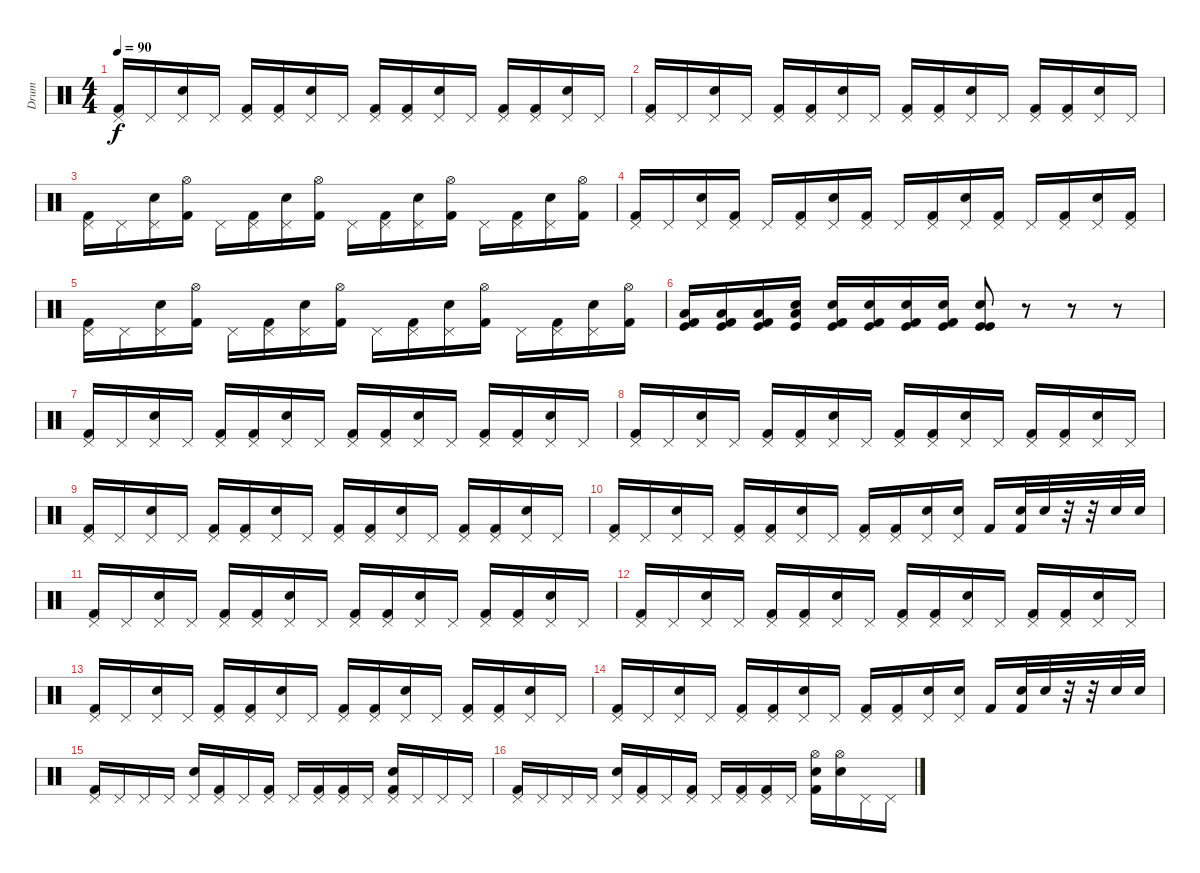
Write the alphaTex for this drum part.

\track ("Drum" "Drum") {instrument percussion}
\staff {score}
\articulation defaults
\ts (4 4)
\tempo 90
\clef neutral
\ks c
("Pedal Hi-Hat (hit)" "Kick (hit) 2").16{dy f} "Pedal Hi-Hat (hit)".16 ("Pedal Hi-Hat (hit)" "Snare (hit) 2").16 "Pedal Hi-Hat (hit)".16 ("Pedal Hi-Hat (hit)" "Kick (hit) 2").16 ("Pedal Hi-Hat (hit)" "Kick (hit) 2").16 ("Pedal Hi-Hat (hit)" "Snare (hit) 2").16 "Pedal Hi-Hat (hit)".16 ("Pedal Hi-Hat (hit)" "Kick (hit) 2").16 ("Pedal Hi-Hat (hit)" "Kick (hit) 2").16 ("Pedal Hi-Hat (hit)" "Snare (hit) 2").16 "Pedal Hi-Hat (hit)".16 ("Pedal Hi-Hat (hit)" "Kick (hit) 2").16 ("Pedal Hi-Hat (hit)" "Kick (hit) 2").16 ("Pedal Hi-Hat (hit)" "Snare (hit) 2").16 "Pedal Hi-Hat (hit)".16 |
("Pedal Hi-Hat (hit)" "Kick (hit) 2").16 "Pedal Hi-Hat (hit)".16 ("Pedal Hi-Hat (hit)" "Snare (hit) 2").16 "Pedal Hi-Hat (hit)".16 ("Pedal Hi-Hat (hit)" "Kick (hit) 2").16 ("Pedal Hi-Hat (hit)" "Kick (hit) 2").16 ("Pedal Hi-Hat (hit)" "Snare (hit) 2").16 "Pedal Hi-Hat (hit)".16 ("Pedal Hi-Hat (hit)" "Kick (hit) 2").16 ("Pedal Hi-Hat (hit)" "Kick (hit) 2").16 ("Pedal Hi-Hat (hit)" "Snare (hit) 2").16 "Pedal Hi-Hat (hit)".16 ("Pedal Hi-Hat (hit)" "Kick (hit) 2").16 ("Pedal Hi-Hat (hit)" "Kick (hit) 2").16 ("Pedal Hi-Hat (hit)" "Snare (hit) 2").16 "Pedal Hi-Hat (hit)".16 |
("Pedal Hi-Hat (hit)" "Kick (hit) 2").16 "Pedal Hi-Hat (hit)".16 ("Pedal Hi-Hat (hit)" "Snare (hit) 2").16 ("Hi-Hat (open)" "Kick (hit) 2").16 "Pedal Hi-Hat (hit)".16 ("Pedal Hi-Hat (hit)" "Kick (hit) 2").16 ("Pedal Hi-Hat (hit)" "Snare (hit) 2").16 ("Hi-Hat (open)" "Kick (hit) 2").16 "Pedal Hi-Hat (hit)".16 ("Pedal Hi-Hat (hit)" "Kick (hit) 2").16 ("Pedal Hi-Hat (hit)" "Snare (hit) 2").16 ("Hi-Hat (open)" "Kick (hit) 2").16 "Pedal Hi-Hat (hit)".16 ("Pedal Hi-Hat (hit)" "Kick (hit) 2").16 ("Pedal Hi-Hat (hit)" "Snare (hit) 2").16 ("Hi-Hat (open)" "Kick (hit) 2").16 |
("Pedal Hi-Hat (hit)" "Kick (hit) 2").16 "Pedal Hi-Hat (hit)".16 ("Pedal Hi-Hat (hit)" "Snare (hit) 2").16 ("Pedal Hi-Hat (hit)" "Kick (hit) 2").16 "Pedal Hi-Hat (hit)".16 ("Pedal Hi-Hat (hit)" "Kick (hit) 2").16 ("Pedal Hi-Hat (hit)" "Snare (hit) 2").16 ("Pedal Hi-Hat (hit)" "Kick (hit) 2").16 "Pedal Hi-Hat (hit)".16 ("Pedal Hi-Hat (hit)" "Kick (hit) 2").16 ("Pedal Hi-Hat (hit)" "Snare (hit) 2").16 ("Pedal Hi-Hat (hit)" "Kick (hit) 2").16 "Pedal Hi-Hat (hit)".16 ("Pedal Hi-Hat (hit)" "Kick (hit) 2").16 ("Pedal Hi-Hat (hit)" "Snare (hit) 2").16 ("Pedal Hi-Hat (hit)" "Kick (hit) 2").16 |
("Pedal Hi-Hat (hit)" "Kick (hit) 2").16 "Pedal Hi-Hat (hit)".16 ("Pedal Hi-Hat (hit)" "Snare (hit) 2").16 ("Hi-Hat (open)" "Kick (hit) 2").16 "Pedal Hi-Hat (hit)".16 ("Pedal Hi-Hat (hit)" "Kick (hit) 2").16 ("Pedal Hi-Hat (hit)" "Snare (hit) 2").16 ("Hi-Hat (open)" "Kick (hit) 2").16 "Pedal Hi-Hat (hit)".16 ("Pedal Hi-Hat (hit)" "Kick (hit) 2").16 ("Pedal Hi-Hat (hit)" "Snare (hit) 2").16 ("Hi-Hat (open)" "Kick (hit) 2").16 "Pedal Hi-Hat (hit)".16 ("Pedal Hi-Hat (hit)" "Kick (hit) 2").16 ("Pedal Hi-Hat (hit)" "Snare (hit) 2").16 ("Hi-Hat (open)" "Kick (hit) 2").16 |
("Kick (hit)" "Low Tom (hit)" "Kick (hit) 2").16 ("Kick (hit)" "Low Tom (hit)" "Kick (hit) 2").16 ("Kick (hit)" "Low Tom (hit)" "Kick (hit) 2").16 ("Kick (hit)" "Low Tom (hit)" "Snare (hit)").16 ("Kick (hit)" "Snare (hit) 2" "Kick (hit) 2").16 ("Kick (hit)" "Snare (hit) 2" "Kick (hit) 2").16 ("Kick (hit)" "Snare (hit) 2" "Kick (hit) 2").16 ("Kick (hit)" "Snare (hit) 2" "Kick (hit) 2").16 ("Kick (hit)" "Snare (hit) 2" "Kick (hit)").8 r.8 r.8 r.8 |
("Pedal Hi-Hat (hit)" "Kick (hit) 2").16 "Pedal Hi-Hat (hit)".16 ("Pedal Hi-Hat (hit)" "Snare (hit) 2").16 "Pedal Hi-Hat (hit)".16 ("Pedal Hi-Hat (hit)" "Kick (hit) 2").16 ("Pedal Hi-Hat (hit)" "Kick (hit) 2").16 ("Pedal Hi-Hat (hit)" "Snare (hit) 2").16 "Pedal Hi-Hat (hit)".16 ("Pedal Hi-Hat (hit)" "Kick (hit) 2").16 ("Pedal Hi-Hat (hit)" "Kick (hit) 2").16 ("Pedal Hi-Hat (hit)" "Snare (hit) 2").16 "Pedal Hi-Hat (hit)".16 ("Pedal Hi-Hat (hit)" "Kick (hit) 2").16 ("Pedal Hi-Hat (hit)" "Kick (hit) 2").16 ("Pedal Hi-Hat (hit)" "Snare (hit) 2").16 "Pedal Hi-Hat (hit)".16 |
("Pedal Hi-Hat (hit)" "Kick (hit) 2").16 "Pedal Hi-Hat (hit)".16 ("Pedal Hi-Hat (hit)" "Snare (hit) 2").16 "Pedal Hi-Hat (hit)".16 ("Pedal Hi-Hat (hit)" "Kick (hit) 2").16 ("Pedal Hi-Hat (hit)" "Kick (hit) 2").16 ("Pedal Hi-Hat (hit)" "Snare (hit) 2").16 "Pedal Hi-Hat (hit)".16 ("Pedal Hi-Hat (hit)" "Kick (hit) 2").16 ("Pedal Hi-Hat (hit)" "Kick (hit) 2").16 ("Pedal Hi-Hat (hit)" "Snare (hit) 2").16 "Pedal Hi-Hat (hit)".16 ("Pedal Hi-Hat (hit)" "Kick (hit) 2").16 ("Pedal Hi-Hat (hit)" "Kick (hit) 2").16 ("Pedal Hi-Hat (hit)" "Snare (hit) 2").16 "Pedal Hi-Hat (hit)".16 |
("Pedal Hi-Hat (hit)" "Kick (hit) 2").16 "Pedal Hi-Hat (hit)".16 ("Pedal Hi-Hat (hit)" "Snare (hit) 2").16 "Pedal Hi-Hat (hit)".16 ("Pedal Hi-Hat (hit)" "Kick (hit) 2").16 ("Pedal Hi-Hat (hit)" "Kick (hit) 2").16 ("Pedal Hi-Hat (hit)" "Snare (hit) 2").16 "Pedal Hi-Hat (hit)".16 ("Pedal Hi-Hat (hit)" "Kick (hit) 2").16 ("Pedal Hi-Hat (hit)" "Kick (hit) 2").16 ("Pedal Hi-Hat (hit)" "Snare (hit) 2").16 "Pedal Hi-Hat (hit)".16 ("Pedal Hi-Hat (hit)" "Kick (hit) 2").16 ("Pedal Hi-Hat (hit)" "Kick (hit) 2").16 ("Pedal Hi-Hat (hit)" "Snare (hit) 2").16 "Pedal Hi-Hat (hit)".16 |
("Pedal Hi-Hat (hit)" "Kick (hit) 2").16 "Pedal Hi-Hat (hit)".16 ("Pedal Hi-Hat (hit)" "Snare (hit) 2").16 "Pedal Hi-Hat (hit)".16 ("Pedal Hi-Hat (hit)" "Kick (hit) 2").16 ("Pedal Hi-Hat (hit)" "Kick (hit) 2").16 ("Pedal Hi-Hat (hit)" "Snare (hit) 2").16 "Pedal Hi-Hat (hit)".16 ("Pedal Hi-Hat (hit)" "Kick (hit) 2").16 ("Pedal Hi-Hat (hit)" "Kick (hit) 2").16 ("Pedal Hi-Hat (hit)" "Snare (hit) 2").16 ("Pedal Hi-Hat (hit)" "Snare (hit) 2").16 "Kick (hit) 2".16 ("Snare (hit) 2" "Kick (hit) 2").32 "Snare (hit) 2".32 r.32 r.32 "Snare (hit) 2".32 "Snare (hit) 2".32 |
("Pedal Hi-Hat (hit)" "Kick (hit) 2").16 "Pedal Hi-Hat (hit)".16 ("Pedal Hi-Hat (hit)" "Snare (hit) 2").16 "Pedal Hi-Hat (hit)".16 ("Pedal Hi-Hat (hit)" "Kick (hit) 2").16 ("Pedal Hi-Hat (hit)" "Kick (hit) 2").16 ("Pedal Hi-Hat (hit)" "Snare (hit) 2").16 "Pedal Hi-Hat (hit)".16 ("Pedal Hi-Hat (hit)" "Kick (hit) 2").16 ("Pedal Hi-Hat (hit)" "Kick (hit) 2").16 ("Pedal Hi-Hat (hit)" "Snare (hit) 2").16 "Pedal Hi-Hat (hit)".16 ("Pedal Hi-Hat (hit)" "Kick (hit) 2").16 ("Pedal Hi-Hat (hit)" "Kick (hit) 2").16 ("Pedal Hi-Hat (hit)" "Snare (hit) 2").16 "Pedal Hi-Hat (hit)".16 |
("Pedal Hi-Hat (hit)" "Kick (hit) 2").16 "Pedal Hi-Hat (hit)".16 ("Pedal Hi-Hat (hit)" "Snare (hit) 2").16 "Pedal Hi-Hat (hit)".16 ("Pedal Hi-Hat (hit)" "Kick (hit) 2").16 ("Pedal Hi-Hat (hit)" "Kick (hit) 2").16 ("Pedal Hi-Hat (hit)" "Snare (hit) 2").16 "Pedal Hi-Hat (hit)".16 ("Pedal Hi-Hat (hit)" "Kick (hit) 2").16 ("Pedal Hi-Hat (hit)" "Kick (hit) 2").16 ("Pedal Hi-Hat (hit)" "Snare (hit) 2").16 "Pedal Hi-Hat (hit)".16 ("Pedal Hi-Hat (hit)" "Kick (hit) 2").16 ("Pedal Hi-Hat (hit)" "Kick (hit) 2").16 ("Pedal Hi-Hat (hit)" "Snare (hit) 2").16 "Pedal Hi-Hat (hit)".16 |
("Pedal Hi-Hat (hit)" "Kick (hit) 2").16 "Pedal Hi-Hat (hit)".16 ("Pedal Hi-Hat (hit)" "Snare (hit) 2").16 "Pedal Hi-Hat (hit)".16 ("Pedal Hi-Hat (hit)" "Kick (hit) 2").16 ("Pedal Hi-Hat (hit)" "Kick (hit) 2").16 ("Pedal Hi-Hat (hit)" "Snare (hit) 2").16 "Pedal Hi-Hat (hit)".16 ("Pedal Hi-Hat (hit)" "Kick (hit) 2").16 ("Pedal Hi-Hat (hit)" "Kick (hit) 2").16 ("Pedal Hi-Hat (hit)" "Snare (hit) 2").16 "Pedal Hi-Hat (hit)".16 ("Pedal Hi-Hat (hit)" "Kick (hit) 2").16 ("Pedal Hi-Hat (hit)" "Kick (hit) 2").16 ("Pedal Hi-Hat (hit)" "Snare (hit) 2").16 "Pedal Hi-Hat (hit)".16 |
("Pedal Hi-Hat (hit)" "Kick (hit) 2").16 "Pedal Hi-Hat (hit)".16 ("Pedal Hi-Hat (hit)" "Snare (hit) 2").16 "Pedal Hi-Hat (hit)".16 ("Pedal Hi-Hat (hit)" "Kick (hit) 2").16 ("Pedal Hi-Hat (hit)" "Kick (hit) 2").16 ("Pedal Hi-Hat (hit)" "Snare (hit) 2").16 "Pedal Hi-Hat (hit)".16 ("Pedal Hi-Hat (hit)" "Kick (hit) 2").16 ("Pedal Hi-Hat (hit)" "Kick (hit) 2").16 ("Pedal Hi-Hat (hit)" "Snare (hit) 2").16 ("Pedal Hi-Hat (hit)" "Snare (hit) 2").16 "Kick (hit) 2".16 ("Snare (hit) 2" "Kick (hit) 2").32 "Snare (hit) 2".32 r.32 r.32 "Snare (hit) 2".32 "Snare (hit) 2".32 |
("Pedal Hi-Hat (hit)" "Kick (hit) 2").16 "Pedal Hi-Hat (hit)".16 "Pedal Hi-Hat (hit)".16 "Pedal Hi-Hat (hit)".16 ("Pedal Hi-Hat (hit)" "Snare (hit) 2").16 ("Pedal Hi-Hat (hit)" "Kick (hit) 2").16 "Pedal Hi-Hat (hit)".16 ("Pedal Hi-Hat (hit)" "Kick (hit) 2").16 "Pedal Hi-Hat (hit)".16 ("Pedal Hi-Hat (hit)" "Kick (hit) 2").16 ("Pedal Hi-Hat (hit)" "Kick (hit) 2").16 "Pedal Hi-Hat (hit)".16 ("Pedal Hi-Hat (hit)" "Snare (hit) 2" "Kick (hit) 2").16 "Pedal Hi-Hat (hit)".16 "Pedal Hi-Hat (hit)".16 "Pedal Hi-Hat (hit)".16 |
("Pedal Hi-Hat (hit)" "Kick (hit) 2").16 "Pedal Hi-Hat (hit)".16 "Pedal Hi-Hat (hit)".16 "Pedal Hi-Hat (hit)".16 ("Pedal Hi-Hat (hit)" "Snare (hit) 2").16 ("Pedal Hi-Hat (hit)" "Kick (hit) 2").16 "Pedal Hi-Hat (hit)".16 ("Pedal Hi-Hat (hit)" "Kick (hit) 2").16 "Pedal Hi-Hat (hit)".16 ("Pedal Hi-Hat (hit)" "Kick (hit) 2").16 ("Pedal Hi-Hat (hit)" "Kick (hit) 2").16 "Pedal Hi-Hat (hit)".16 ("Hi-Hat (open)" "Snare (hit) 2" "Kick (hit) 2").16 ("Hi-Hat (open)" "Snare (hit) 2").16 "Pedal Hi-Hat (hit)".16 "Pedal Hi-Hat (hit)".16
